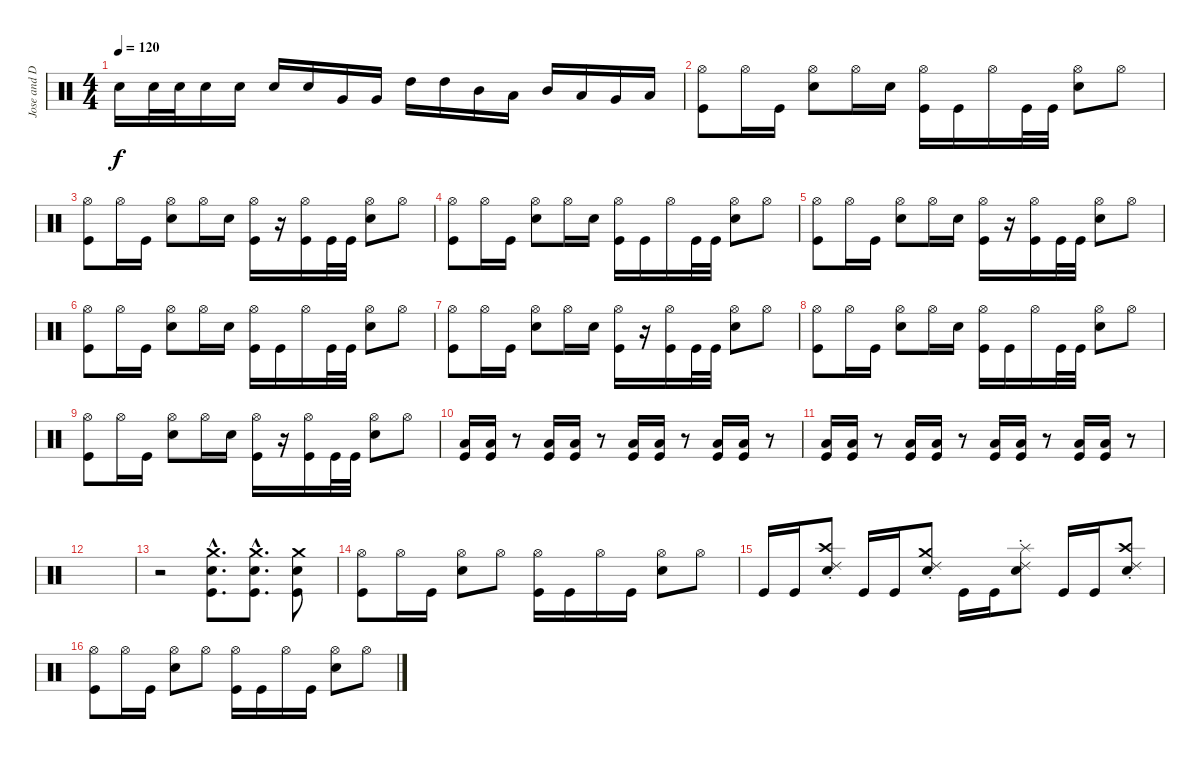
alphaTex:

\track ("Jose and Dj" "Jose and D") {instrument percussion}
\staff {score}
\articulation defaults
\ts (4 4)
\tempo 120
\clef neutral
\ks c "Electric Snare (hit)".16{dy f} "Electric Snare (hit)".32 "Electric Snare (hit)".32 "Electric Snare (hit)".16 "Electric Snare (hit)".16 "Electric Snare (hit)".16 "Electric Snare (hit)".16 "Very Low Tom (hit)".16 "Very Low Tom (hit)".16 "High Tom (hit)".16 "High Tom (hit)".16 "Mid Tom (hit)".16 "Low Tom (hit)".16 "Mid Tom (hit)".16 "Low Tom (hit)".16 "Very Low Tom (hit)".16 "Low Floor Tom (hit)".16
|
("Hi-Hat (open)" "Kick (hit)").8 "Hi-Hat (open)".16 "Kick (hit)".16 ("Hi-Hat (open)" "Snare (hit) 2").8 "Hi-Hat (open)".16 "Snare (hit) 2".16 ("Hi-Hat (open)" "Kick (hit)").16 "Kick (hit)".16 "Hi-Hat (open)".16 "Kick (hit)".32 "Kick (hit)".32 ("Hi-Hat (open)" "Snare (hit) 2").8 "Hi-Hat (open)".8 |
("Hi-Hat (open)" "Kick (hit)").8 "Hi-Hat (open)".16 "Kick (hit)".16 ("Hi-Hat (open)" "Snare (hit) 2").8 "Hi-Hat (open)".16 "Snare (hit) 2".16 ("Hi-Hat (open)" "Kick (hit)").16 r.16 ("Hi-Hat (open)" "Kick (hit)").16 "Kick (hit)".32 "Kick (hit)".32 ("Hi-Hat (open)" "Snare (hit) 2").8 "Hi-Hat (open)".8 |
("Hi-Hat (open)" "Kick (hit)").8 "Hi-Hat (open)".16 "Kick (hit)".16 ("Hi-Hat (open)" "Snare (hit) 2").8 "Hi-Hat (open)".16 "Snare (hit) 2".16 ("Hi-Hat (open)" "Kick (hit)").16 "Kick (hit)".16 "Hi-Hat (open)".16 "Kick (hit)".32 "Kick (hit)".32 ("Hi-Hat (open)" "Snare (hit) 2").8 "Hi-Hat (open)".8 |
("Hi-Hat (open)" "Kick (hit)").8 "Hi-Hat (open)".16 "Kick (hit)".16 ("Hi-Hat (open)" "Snare (hit) 2").8 "Hi-Hat (open)".16 "Snare (hit) 2".16 ("Hi-Hat (open)" "Kick (hit)").16 r.16 ("Hi-Hat (open)" "Kick (hit)").16 "Kick (hit)".32 "Kick (hit)".32 ("Hi-Hat (open)" "Snare (hit) 2").8 "Hi-Hat (open)".8 |
("Hi-Hat (open)" "Kick (hit)").8 "Hi-Hat (open)".16 "Kick (hit)".16 ("Hi-Hat (open)" "Snare (hit) 2").8 "Hi-Hat (open)".16 "Snare (hit) 2".16 ("Hi-Hat (open)" "Kick (hit)").16 "Kick (hit)".16 "Hi-Hat (open)".16 "Kick (hit)".32 "Kick (hit)".32 ("Hi-Hat (open)" "Snare (hit) 2").8 "Hi-Hat (open)".8 |
("Hi-Hat (open)" "Kick (hit)").8 "Hi-Hat (open)".16 "Kick (hit)".16 ("Hi-Hat (open)" "Snare (hit) 2").8 "Hi-Hat (open)".16 "Snare (hit) 2".16 ("Hi-Hat (open)" "Kick (hit)").16 r.16 ("Hi-Hat (open)" "Kick (hit)").16 "Kick (hit)".32 "Kick (hit)".32 ("Hi-Hat (open)" "Snare (hit) 2").8 "Hi-Hat (open)".8 |
("Hi-Hat (open)" "Kick (hit)").8 "Hi-Hat (open)".16 "Kick (hit)".16 ("Hi-Hat (open)" "Snare (hit) 2").8 "Hi-Hat (open)".16 "Snare (hit) 2".16 ("Hi-Hat (open)" "Kick (hit)").16 "Kick (hit)".16 "Hi-Hat (open)".16 "Kick (hit)".32 "Kick (hit)".32 ("Hi-Hat (open)" "Snare (hit) 2").8 "Hi-Hat (open)".8 |
("Hi-Hat (open)" "Kick (hit)").8 "Hi-Hat (open)".16 "Kick (hit)".16 ("Hi-Hat (open)" "Snare (hit) 2").8 "Hi-Hat (open)".16 "Snare (hit) 2".16 ("Hi-Hat (open)" "Kick (hit)").16 r.16 ("Hi-Hat (open)" "Kick (hit)").16 "Kick (hit)".32 "Kick (hit)".32 ("Hi-Hat (open)" "Snare (hit) 2").8 "Hi-Hat (open)".8 |
("Low Floor Tom (hit)" "Kick (hit)").16 ("Low Floor Tom (hit)" "Kick (hit)").16 r.8 ("Low Floor Tom (hit)" "Kick (hit)").16 ("Low Floor Tom (hit)" "Kick (hit)").16 r.8 ("Low Floor Tom (hit)" "Kick (hit)").16 ("Low Floor Tom (hit)" "Kick (hit)").16 r.8 ("Low Floor Tom (hit)" "Kick (hit)").16 ("Low Floor Tom (hit)" "Kick (hit)").16 r.8 |
("Low Floor Tom (hit)" "Kick (hit)").16 ("Low Floor Tom (hit)" "Kick (hit)").16 r.8 ("Low Floor Tom (hit)" "Kick (hit)").16 ("Low Floor Tom (hit)" "Kick (hit)").16 r.8 ("Low Floor Tom (hit)" "Kick (hit)").16 ("Low Floor Tom (hit)" "Kick (hit)").16 r.8 ("Low Floor Tom (hit)" "Kick (hit)").16 ("Low Floor Tom (hit)" "Kick (hit)").16 r.8 |
|
r.2 ("Crash medium (hit)"{hac} "Snare (hit) 2"{hac} "Kick (hit)"{hac}).8{d} ("Crash medium (hit)"{hac} "Snare (hit) 2"{hac} "Kick (hit)"{hac}).8{d} ("Crash medium (hit)" "Snare (hit) 2" "Kick (hit)").8 |
("Hi-Hat (open)" "Kick (hit)").8 "Hi-Hat (open)".16 "Kick (hit)".16 ("Hi-Hat (open)" "Snare (hit) 2").8 "Hi-Hat (open)".8 ("Hi-Hat (open)" "Kick (hit)").16 "Kick (hit)".16 "Hi-Hat (open)".16 "Kick (hit)".16 ("Hi-Hat (open)" "Snare (hit) 2").8 "Hi-Hat (open)".8 |
"Kick (hit)".16 "Kick (hit)".16 ("Crash high (hit)" "Snare (hit) 2" "Ride (choke) 2").8 "Kick (hit)".16 "Kick (hit)".16 ("Crash medium (hit)" "Snare (hit) 2" "Ride (choke) 2").8 "Kick (hit)".16 "Kick (hit)".16 ("Splash (hit)" "Snare (hit) 2" "Ride (choke) 2").8 "Kick (hit)".16 "Kick (hit)".16 ("Crash high (hit)" "Snare (hit) 2" "Ride (choke) 2").8 |
("Hi-Hat (open)" "Kick (hit)").8 "Hi-Hat (open)".16 "Kick (hit)".16 ("Hi-Hat (open)" "Snare (hit) 2").8 "Hi-Hat (open)".8 ("Hi-Hat (open)" "Kick (hit)").16 "Kick (hit)".16 "Hi-Hat (open)".16 "Kick (hit)".16 ("Hi-Hat (open)" "Snare (hit) 2").8 "Hi-Hat (open)".8
